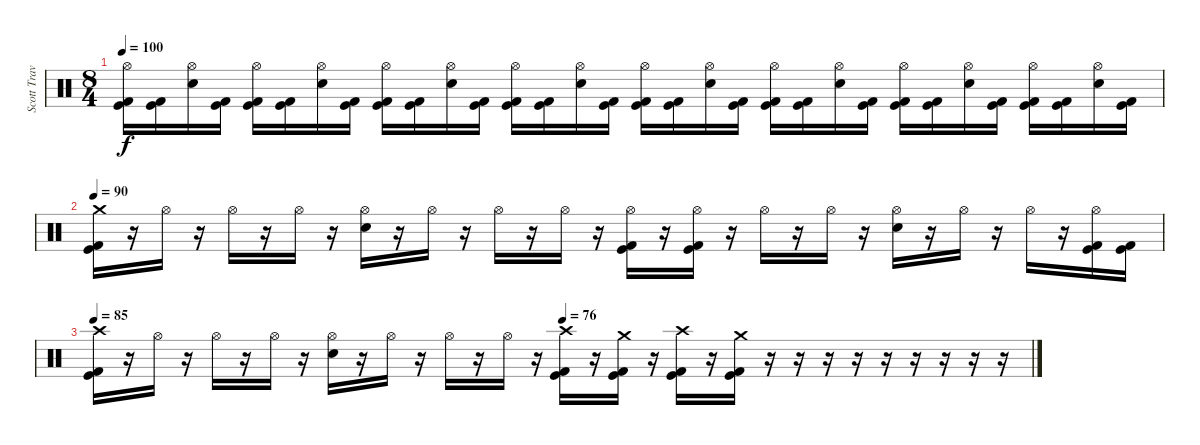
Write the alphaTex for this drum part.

\track ("Scott Travis" "Scott Trav") {instrument percussion}
\staff {score}
\articulation defaults
\ts (8 4)
\tempo 100
\clef neutral
\ks c
("Hi-Hat (open)" "Kick (hit) 2" "Kick (hit)").16{dy f} ("Kick (hit)" "Kick (hit) 2").16 ("Hi-Hat (open)" "Electric Snare (hit)").16 ("Kick (hit) 2" "Kick (hit)").16 ("Hi-Hat (open)" "Kick (hit) 2" "Kick (hit)").16 ("Kick (hit) 2" "Kick (hit)").16 ("Hi-Hat (open)" "Electric Snare (hit)").16 ("Kick (hit) 2" "Kick (hit)").16 ("Hi-Hat (open)" "Kick (hit) 2" "Kick (hit)").16 ("Kick (hit) 2" "Kick (hit)").16 ("Hi-Hat (open)" "Electric Snare (hit)").16 ("Kick (hit) 2" "Kick (hit)").16 ("Hi-Hat (open)" "Kick (hit) 2" "Kick (hit)").16 ("Kick (hit) 2" "Kick (hit)").16 ("Hi-Hat (open)" "Electric Snare (hit)").16 ("Kick (hit) 2" "Kick (hit)").16 ("Hi-Hat (open)" "Kick (hit) 2" "Kick (hit)").16 ("Kick (hit) 2" "Kick (hit)").16 ("Hi-Hat (open)" "Electric Snare (hit)").16 ("Kick (hit) 2" "Kick (hit)").16 ("Hi-Hat (open)" "Kick (hit) 2" "Kick (hit)").16 ("Kick (hit) 2" "Kick (hit)").16 ("Hi-Hat (open)" "Electric Snare (hit)").16 ("Kick (hit) 2" "Kick (hit)").16 ("Hi-Hat (open)" "Kick (hit) 2" "Kick (hit)").16 ("Kick (hit) 2" "Kick (hit)").16 ("Hi-Hat (open)" "Electric Snare (hit)").16 ("Kick (hit) 2" "Kick (hit)").16 ("Hi-Hat (open)" "Kick (hit) 2" "Kick (hit)").16 ("Kick (hit) 2" "Kick (hit)").16 ("Hi-Hat (open)" "Electric Snare (hit)").16 ("Kick (hit) 2" "Kick (hit)").16 |
\tempo 90
("Crash medium (hit)" "Kick (hit)" "Kick (hit) 2").16 r.16 "Hi-Hat (open)".16 r.16 "Hi-Hat (open)".16 r.16 "Hi-Hat (open)".16 r.16 ("Hi-Hat (open)" "Electric Snare (hit)").16 r.16 "Hi-Hat (open)".16 r.16 "Hi-Hat (open)".16 r.16 "Hi-Hat (open)".16 r.16 ("Hi-Hat (open)" "Kick (hit)" "Kick (hit) 2").16 r.16 ("Hi-Hat (open)" "Kick (hit)" "Kick (hit) 2").16 r.16 "Hi-Hat (open)".16 r.16 "Hi-Hat (open)".16 r.16 ("Hi-Hat (open)" "Electric Snare (hit)").16 r.16 "Hi-Hat (open)".16 r.16 "Hi-Hat (open)".16 r.16 ("Hi-Hat (open)" "Kick (hit) 2" "Kick (hit)").16 ("Kick (hit)" "Kick (hit) 2").16 |
\tempo 85
\tempo (76 0.5)
("Crash high (hit)" "Kick (hit)" "Kick (hit) 2").16 r.16 "Hi-Hat (open)".16 r.16 "Hi-Hat (open)".16 r.16 "Hi-Hat (open)".16 r.16 ("Hi-Hat (open)" "Electric Snare (hit)").16 r.16 "Hi-Hat (open)".16 r.16 "Hi-Hat (open)".16 r.16 "Hi-Hat (open)".16 r.16 ("Crash high (hit)" "Kick (hit)" "Kick (hit) 2").16 r.16 ("Crash medium (hit)" "Kick (hit)" "Kick (hit) 2").16 r.16 ("Crash high (hit)" "Kick (hit)" "Kick (hit) 2").16 r.16 ("Crash medium (hit)" "Kick (hit)" "Kick (hit) 2").16 r.16 r.16 r.16 r.16 r.16 r.16 r.16 r.16 r.16
